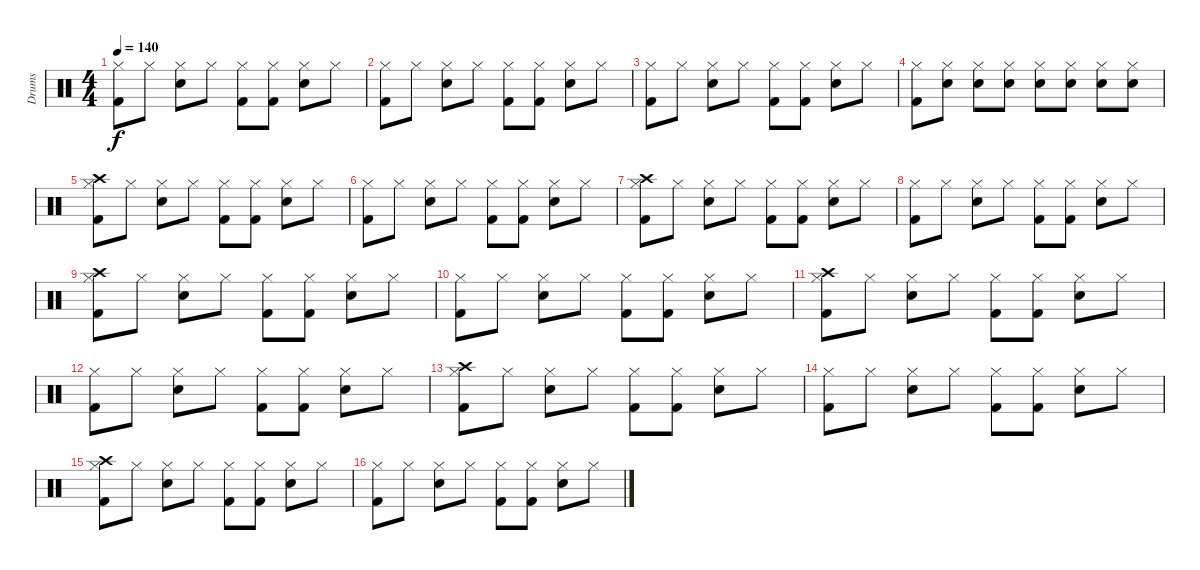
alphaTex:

\track ("Drums" "Drums") {instrument percussion}
\staff {score}
\articulation defaults
\ts (4 4)
\tempo 140
\clef neutral
\ks c
("Hi-Hat (closed)" "Kick (hit) 2").8{dy f} "Hi-Hat (closed)".8 ("Hi-Hat (closed)" "Snare (hit) 2").8 "Hi-Hat (closed)".8 ("Hi-Hat (closed)" "Kick (hit) 2").8 ("Hi-Hat (closed)" "Kick (hit) 2").8 ("Hi-Hat (closed)" "Snare (hit) 2").8 "Hi-Hat (closed)".8 |
("Hi-Hat (closed)" "Kick (hit) 2").8 "Hi-Hat (closed)".8 ("Hi-Hat (closed)" "Snare (hit) 2").8 "Hi-Hat (closed)".8 ("Hi-Hat (closed)" "Kick (hit) 2").8 ("Hi-Hat (closed)" "Kick (hit) 2").8 ("Hi-Hat (closed)" "Snare (hit) 2").8 "Hi-Hat (closed)".8 |
("Hi-Hat (closed)" "Kick (hit) 2").8 "Hi-Hat (closed)".8 ("Hi-Hat (closed)" "Snare (hit) 2").8 "Hi-Hat (closed)".8 ("Hi-Hat (closed)" "Kick (hit) 2").8 ("Hi-Hat (closed)" "Kick (hit) 2").8 ("Hi-Hat (closed)" "Snare (hit) 2").8 "Hi-Hat (closed)".8 |
("Hi-Hat (closed)" "Kick (hit) 2").8 ("Hi-Hat (closed)" "Snare (hit) 2").8 ("Hi-Hat (closed)" "Snare (hit) 2").8 ("Hi-Hat (closed)" "Snare (hit) 2").8 ("Hi-Hat (closed)" "Snare (hit) 2").8 ("Hi-Hat (closed)" "Snare (hit) 2").8 ("Hi-Hat (closed)" "Snare (hit) 2").8 ("Hi-Hat (closed)" "Snare (hit) 2").8 |
("Hi-Hat (closed)" "Kick (hit) 2" "Crash high (hit)").8 "Hi-Hat (closed)".8 ("Hi-Hat (closed)" "Snare (hit) 2").8 "Hi-Hat (closed)".8 ("Hi-Hat (closed)" "Kick (hit) 2").8 ("Hi-Hat (closed)" "Kick (hit) 2").8 ("Hi-Hat (closed)" "Snare (hit) 2").8 "Hi-Hat (closed)".8 |
("Hi-Hat (closed)" "Kick (hit) 2").8 "Hi-Hat (closed)".8 ("Hi-Hat (closed)" "Snare (hit) 2").8 "Hi-Hat (closed)".8 ("Hi-Hat (closed)" "Kick (hit) 2").8 ("Hi-Hat (closed)" "Kick (hit) 2").8 ("Hi-Hat (closed)" "Snare (hit) 2").8 "Hi-Hat (closed)".8 |
("Hi-Hat (closed)" "Kick (hit) 2" "Crash high (hit)").8 "Hi-Hat (closed)".8 ("Hi-Hat (closed)" "Snare (hit) 2").8 "Hi-Hat (closed)".8 ("Hi-Hat (closed)" "Kick (hit) 2").8 ("Hi-Hat (closed)" "Kick (hit) 2").8 ("Hi-Hat (closed)" "Snare (hit) 2").8 "Hi-Hat (closed)".8 |
("Hi-Hat (closed)" "Kick (hit) 2").8 "Hi-Hat (closed)".8 ("Hi-Hat (closed)" "Snare (hit) 2").8 "Hi-Hat (closed)".8 ("Hi-Hat (closed)" "Kick (hit) 2").8 ("Hi-Hat (closed)" "Kick (hit) 2").8 ("Hi-Hat (closed)" "Snare (hit) 2").8 "Hi-Hat (closed)".8 |
("Hi-Hat (closed)" "Kick (hit) 2" "Crash high (hit)").8 "Hi-Hat (closed)".8 ("Hi-Hat (closed)" "Snare (hit) 2").8 "Hi-Hat (closed)".8 ("Hi-Hat (closed)" "Kick (hit) 2").8 ("Hi-Hat (closed)" "Kick (hit) 2").8 ("Hi-Hat (closed)" "Snare (hit) 2").8 "Hi-Hat (closed)".8 |
("Hi-Hat (closed)" "Kick (hit) 2").8 "Hi-Hat (closed)".8 ("Hi-Hat (closed)" "Snare (hit) 2").8 "Hi-Hat (closed)".8 ("Hi-Hat (closed)" "Kick (hit) 2").8 ("Hi-Hat (closed)" "Kick (hit) 2").8 ("Hi-Hat (closed)" "Snare (hit) 2").8 "Hi-Hat (closed)".8 |
("Hi-Hat (closed)" "Kick (hit) 2" "Crash high (hit)").8 "Hi-Hat (closed)".8 ("Hi-Hat (closed)" "Snare (hit) 2").8 "Hi-Hat (closed)".8 ("Hi-Hat (closed)" "Kick (hit) 2").8 ("Hi-Hat (closed)" "Kick (hit) 2").8 ("Hi-Hat (closed)" "Snare (hit) 2").8 "Hi-Hat (closed)".8 |
("Hi-Hat (closed)" "Kick (hit) 2").8 "Hi-Hat (closed)".8 ("Hi-Hat (closed)" "Snare (hit) 2").8 "Hi-Hat (closed)".8 ("Hi-Hat (closed)" "Kick (hit) 2").8 ("Hi-Hat (closed)" "Kick (hit) 2").8 ("Hi-Hat (closed)" "Snare (hit) 2").8 "Hi-Hat (closed)".8 |
("Hi-Hat (closed)" "Kick (hit) 2" "Crash high (hit)").8 "Hi-Hat (closed)".8 ("Hi-Hat (closed)" "Snare (hit) 2").8 "Hi-Hat (closed)".8 ("Hi-Hat (closed)" "Kick (hit) 2").8 ("Hi-Hat (closed)" "Kick (hit) 2").8 ("Hi-Hat (closed)" "Snare (hit) 2").8 "Hi-Hat (closed)".8 |
("Hi-Hat (closed)" "Kick (hit) 2").8 "Hi-Hat (closed)".8 ("Hi-Hat (closed)" "Snare (hit) 2").8 "Hi-Hat (closed)".8 ("Hi-Hat (closed)" "Kick (hit) 2").8 ("Hi-Hat (closed)" "Kick (hit) 2").8 ("Hi-Hat (closed)" "Snare (hit) 2").8 "Hi-Hat (closed)".8 |
("Hi-Hat (closed)" "Kick (hit) 2" "Crash high (hit)").8 "Hi-Hat (closed)".8 ("Hi-Hat (closed)" "Snare (hit) 2").8 "Hi-Hat (closed)".8 ("Hi-Hat (closed)" "Kick (hit) 2").8 ("Hi-Hat (closed)" "Kick (hit) 2").8 ("Hi-Hat (closed)" "Snare (hit) 2").8 "Hi-Hat (closed)".8 |
("Hi-Hat (closed)" "Kick (hit) 2").8 "Hi-Hat (closed)".8 ("Hi-Hat (closed)" "Snare (hit) 2").8 "Hi-Hat (closed)".8 ("Hi-Hat (closed)" "Kick (hit) 2").8 ("Hi-Hat (closed)" "Kick (hit) 2").8 ("Hi-Hat (closed)" "Snare (hit) 2").8 "Hi-Hat (closed)".8
